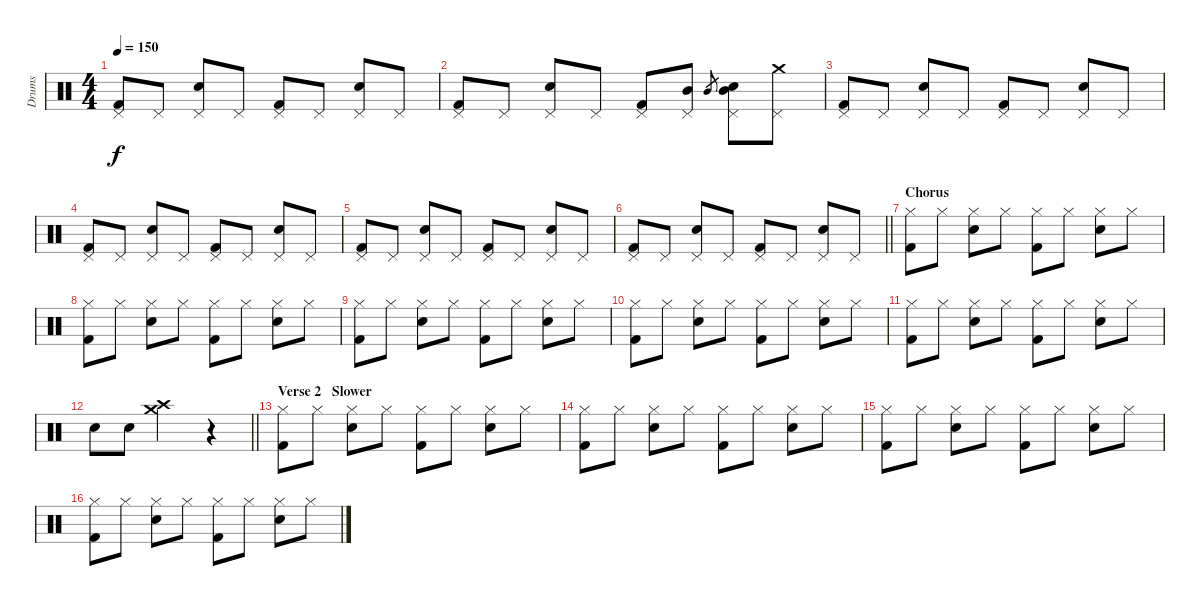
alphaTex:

\track ("Drums" "Drums") {instrument percussion}
\staff {score}
\articulation defaults
\ts (4 4)
\tempo 150
\clef neutral
\ks c
("Kick (hit) 2" "Pedal Hi-Hat (hit)").8{dy f} "Pedal Hi-Hat (hit)".8 ("Snare (hit) 2" "Pedal Hi-Hat (hit)").8 "Pedal Hi-Hat (hit)".8 ("Kick (hit) 2" "Pedal Hi-Hat (hit)").8 "Pedal Hi-Hat (hit)".8 ("Snare (hit) 2" "Pedal Hi-Hat (hit)").8 "Pedal Hi-Hat (hit)".8 |
("Kick (hit) 2" "Pedal Hi-Hat (hit)").8 "Pedal Hi-Hat (hit)".8 ("Snare (hit) 2" "Pedal Hi-Hat (hit)").8 "Pedal Hi-Hat (hit)".8 ("Kick (hit) 2" "Pedal Hi-Hat (hit)").8 ("Mid Tom (hit)" "Pedal Hi-Hat (hit)").8 "Mid Tom (hit)".8{gr} ("Mid Tom (hit)" "Snare (hit) 2" "Pedal Hi-Hat (hit)").8 ("Crash medium (hit)" "Pedal Hi-Hat (hit)").8 |
("Kick (hit) 2" "Pedal Hi-Hat (hit)").8 "Pedal Hi-Hat (hit)".8 ("Snare (hit) 2" "Pedal Hi-Hat (hit)").8 "Pedal Hi-Hat (hit)".8 ("Kick (hit) 2" "Pedal Hi-Hat (hit)").8 "Pedal Hi-Hat (hit)".8 ("Snare (hit) 2" "Pedal Hi-Hat (hit)").8 "Pedal Hi-Hat (hit)".8 |
("Kick (hit) 2" "Pedal Hi-Hat (hit)").8 "Pedal Hi-Hat (hit)".8 ("Snare (hit) 2" "Pedal Hi-Hat (hit)").8 "Pedal Hi-Hat (hit)".8 ("Kick (hit) 2" "Pedal Hi-Hat (hit)").8 "Pedal Hi-Hat (hit)".8 ("Snare (hit) 2" "Pedal Hi-Hat (hit)").8 "Pedal Hi-Hat (hit)".8 |
("Kick (hit) 2" "Pedal Hi-Hat (hit)").8 "Pedal Hi-Hat (hit)".8 ("Snare (hit) 2" "Pedal Hi-Hat (hit)").8 "Pedal Hi-Hat (hit)".8 ("Kick (hit) 2" "Pedal Hi-Hat (hit)").8 "Pedal Hi-Hat (hit)".8 ("Snare (hit) 2" "Pedal Hi-Hat (hit)").8 "Pedal Hi-Hat (hit)".8 |
\barLineRight lightlight
("Kick (hit) 2" "Pedal Hi-Hat (hit)").8 "Pedal Hi-Hat (hit)".8 ("Snare (hit) 2" "Pedal Hi-Hat (hit)").8 "Pedal Hi-Hat (hit)".8 ("Kick (hit) 2" "Pedal Hi-Hat (hit)").8 "Pedal Hi-Hat (hit)".8 ("Snare (hit) 2" "Pedal Hi-Hat (hit)").8 "Pedal Hi-Hat (hit)".8 |
\section ("" "Chorus")
("Kick (hit) 2" "Hi-Hat (closed)").8 "Hi-Hat (closed)".8 ("Snare (hit) 2" "Hi-Hat (closed)").8 "Hi-Hat (closed)".8 ("Kick (hit) 2" "Hi-Hat (closed)").8 "Hi-Hat (closed)".8 ("Snare (hit) 2" "Hi-Hat (closed)").8 "Hi-Hat (closed)".8 |
("Kick (hit) 2" "Hi-Hat (closed)").8 "Hi-Hat (closed)".8 ("Snare (hit) 2" "Hi-Hat (closed)").8 "Hi-Hat (closed)".8 ("Kick (hit) 2" "Hi-Hat (closed)").8 "Hi-Hat (closed)".8 ("Snare (hit) 2" "Hi-Hat (closed)").8 "Hi-Hat (closed)".8 |
("Kick (hit) 2" "Hi-Hat (closed)").8 "Hi-Hat (closed)".8 ("Snare (hit) 2" "Hi-Hat (closed)").8 "Hi-Hat (closed)".8 ("Kick (hit) 2" "Hi-Hat (closed)").8 "Hi-Hat (closed)".8 ("Snare (hit) 2" "Hi-Hat (closed)").8 "Hi-Hat (closed)".8 |
("Kick (hit) 2" "Hi-Hat (closed)").8 "Hi-Hat (closed)".8 ("Snare (hit) 2" "Hi-Hat (closed)").8 "Hi-Hat (closed)".8 ("Kick (hit) 2" "Hi-Hat (closed)").8 "Hi-Hat (closed)".8 ("Snare (hit) 2" "Hi-Hat (closed)").8 "Hi-Hat (closed)".8 |
("Kick (hit) 2" "Hi-Hat (closed)").8 "Hi-Hat (closed)".8 ("Snare (hit) 2" "Hi-Hat (closed)").8 "Hi-Hat (closed)".8 ("Kick (hit) 2" "Hi-Hat (closed)").8 "Hi-Hat (closed)".8 ("Snare (hit) 2" "Hi-Hat (closed)").8 "Hi-Hat (closed)".8 |
\barLineRight lightlight "Snare (hit) 2".8 "Snare (hit) 2".8
("Crash high (hit)" "Crash medium (hit)").2 r.4 |
\section ("" "Verse 2   Slower")
("Kick (hit) 2" "Hi-Hat (closed)").8 "Hi-Hat (closed)".8 ("Snare (hit) 2" "Hi-Hat (closed)").8 "Hi-Hat (closed)".8 ("Kick (hit) 2" "Hi-Hat (closed)").8 "Hi-Hat (closed)".8 ("Snare (hit) 2" "Hi-Hat (closed)").8 "Hi-Hat (closed)".8 |
("Kick (hit) 2" "Hi-Hat (closed)").8 "Hi-Hat (closed)".8 ("Snare (hit) 2" "Hi-Hat (closed)").8 "Hi-Hat (closed)".8 ("Kick (hit) 2" "Hi-Hat (closed)").8 "Hi-Hat (closed)".8 ("Snare (hit) 2" "Hi-Hat (closed)").8 "Hi-Hat (closed)".8 |
("Kick (hit) 2" "Hi-Hat (closed)").8 "Hi-Hat (closed)".8 ("Snare (hit) 2" "Hi-Hat (closed)").8 "Hi-Hat (closed)".8 ("Kick (hit) 2" "Hi-Hat (closed)").8 "Hi-Hat (closed)".8 ("Snare (hit) 2" "Hi-Hat (closed)").8 "Hi-Hat (closed)".8 |
("Kick (hit) 2" "Hi-Hat (closed)").8 "Hi-Hat (closed)".8 ("Snare (hit) 2" "Hi-Hat (closed)").8 "Hi-Hat (closed)".8 ("Kick (hit) 2" "Hi-Hat (closed)").8 "Hi-Hat (closed)".8 ("Snare (hit) 2" "Hi-Hat (closed)").8 "Hi-Hat (closed)".8
